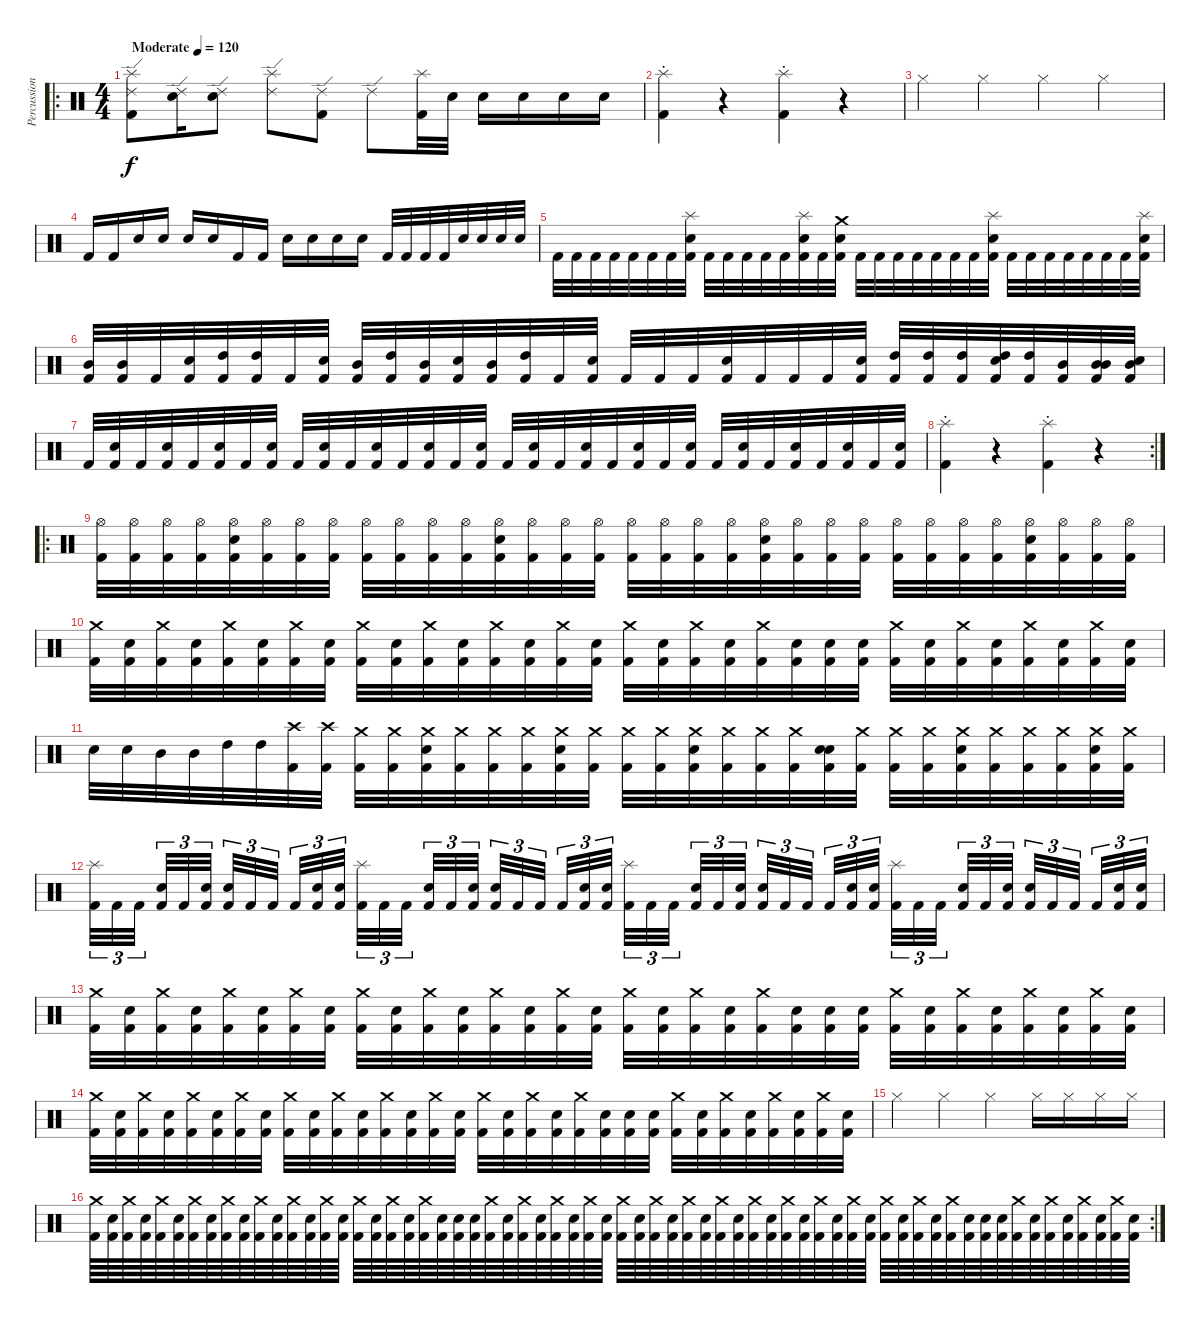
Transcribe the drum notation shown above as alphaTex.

\track ("Percussion" "Percussion") {instrument percussion}
\staff {score}
\articulation defaults
\ro
\ts (4 4)
\tempo (120 "Moderate")
\clef neutral
\ks c
("Splash (hit)" "Ride (edge) 2" "Kick (hit) 2").8{dy f} ("Snare (hit) 2" "Ride (edge) 2").16 ("Snare (hit) 2" "Ride (edge) 2").8 ("Splash (hit)" "Ride (edge) 2").8 ("Kick (hit) 2" "Ride (edge) 2").8 "Ride (edge) 2".8 ("Kick (hit) 2" "Splash (hit)").32 "Snare (hit) 2".32 "Snare (hit) 2".16 "Snare (hit) 2".16 "Snare (hit) 2".16 "Snare (hit) 2".16 |
("Splash (hit)"{st} "Kick (hit) 2"{st}).4 r.4 ("Splash (hit)"{st} "Kick (hit) 2"{st}).4 r.4 |
"Hi-Hat (closed)".4 "Hi-Hat (closed)".4 "Hi-Hat (closed)".4 "Hi-Hat (closed)".4 |
"Kick (hit) 2".16 "Kick (hit) 2".16 "Snare (hit) 2".16 "Snare (hit) 2".16 "Snare (hit) 2".16 "Snare (hit) 2".16 "Kick (hit) 2".16 "Kick (hit) 2".16 "Snare (hit) 2".16 "Snare (hit) 2".16 "Snare (hit) 2".16 "Snare (hit) 2".16 "Kick (hit) 2".32 "Kick (hit) 2".32 "Kick (hit) 2".32 "Kick (hit) 2".32 "Snare (hit) 2".32 "Snare (hit) 2".32 "Snare (hit) 2".32 "Snare (hit) 2".32 |
"Kick (hit) 2".32 "Kick (hit) 2".32 "Kick (hit) 2".32 "Kick (hit) 2".32 "Kick (hit) 2".32 "Kick (hit) 2".32 "Kick (hit) 2".32 ("Kick (hit) 2" "Snare (hit) 2" "Splash (hit)").32 "Kick (hit) 2".32 "Kick (hit) 2".32 "Kick (hit) 2".32 "Kick (hit) 2".32 "Kick (hit) 2".32 ("Kick (hit) 2" "Snare (hit) 2" "Splash (hit)").32 "Kick (hit) 2".32 ("Kick (hit) 2" "Snare (hit) 2" "Crash medium (hit)").32 "Kick (hit) 2".32 "Kick (hit) 2".32 "Kick (hit) 2".32 "Kick (hit) 2".32 "Kick (hit) 2".32 "Kick (hit) 2".32 "Kick (hit) 2".32 ("Kick (hit) 2" "Snare (hit) 2" "Splash (hit)").32 "Kick (hit) 2".32 "Kick (hit) 2".32 "Kick (hit) 2".32 "Kick (hit) 2".32 "Kick (hit) 2".32 "Kick (hit) 2".32 "Kick (hit) 2".32 ("Kick (hit) 2" "Snare (hit) 2" "Splash (hit)").32 |
("Kick (hit) 2" "Mid Tom (hit)").32 ("Kick (hit) 2" "Mid Tom (hit)").32 "Kick (hit) 2".32 ("Kick (hit) 2" "Snare (hit) 2").32 ("Kick (hit) 2" "High Tom (hit)").32 ("Kick (hit) 2" "High Tom (hit)").32 "Kick (hit) 2".32 ("Kick (hit) 2" "Snare (hit) 2").32 ("Kick (hit) 2" "Mid Tom (hit)").32 ("Kick (hit) 2" "High Tom (hit)").32 ("Kick (hit) 2" "Mid Tom (hit)").32 ("Kick (hit) 2" "Snare (hit) 2").32 ("Kick (hit) 2" "Mid Tom (hit)").32 ("Kick (hit) 2" "High Tom (hit)").32 "Kick (hit) 2".32 ("Kick (hit) 2" "Snare (hit) 2").32 "Kick (hit) 2".32 "Kick (hit) 2".32 "Kick (hit) 2".32 ("Kick (hit) 2" "Snare (hit) 2").32 "Kick (hit) 2".32 "Kick (hit) 2".32 "Kick (hit) 2".32 ("Kick (hit) 2" "Snare (hit) 2").32 ("Kick (hit) 2" "High Tom (hit)").32 ("Kick (hit) 2" "High Tom (hit)").32 ("Kick (hit) 2" "High Tom (hit)").32 ("Kick (hit) 2" "Snare (hit) 2" "High Tom (hit)").32 ("Kick (hit) 2" "High Tom (hit)").32 ("Kick (hit) 2" "Mid Tom (hit)").32 ("Kick (hit) 2" "Mid Tom (hit)" "Mid Tom (hit)").32 ("Kick (hit) 2" "Snare (hit) 2" "Mid Tom (hit)").32 |
"Kick (hit) 2".32 ("Kick (hit) 2" "Snare (hit) 2").32 "Kick (hit) 2".32 ("Kick (hit) 2" "Snare (hit) 2").32 "Kick (hit) 2".32 ("Kick (hit) 2" "Snare (hit) 2").32 "Kick (hit) 2".32 ("Kick (hit) 2" "Snare (hit) 2").32 "Kick (hit) 2".32 ("Kick (hit) 2" "Snare (hit) 2").32 "Kick (hit) 2".32 ("Kick (hit) 2" "Snare (hit) 2").32 "Kick (hit) 2".32 ("Kick (hit) 2" "Snare (hit) 2").32 "Kick (hit) 2".32 ("Kick (hit) 2" "Snare (hit) 2").32 "Kick (hit) 2".32 ("Kick (hit) 2" "Snare (hit) 2").32 "Kick (hit) 2".32 ("Kick (hit) 2" "Snare (hit) 2").32 "Kick (hit) 2".32 ("Kick (hit) 2" "Snare (hit) 2").32 "Kick (hit) 2".32 ("Kick (hit) 2" "Snare (hit) 2").32 "Kick (hit) 2".32 ("Kick (hit) 2" "Snare (hit) 2").32 "Kick (hit) 2".32 ("Kick (hit) 2" "Snare (hit) 2").32 "Kick (hit) 2".32 ("Kick (hit) 2" "Snare (hit) 2").32 "Kick (hit) 2".32 ("Kick (hit) 2" "Snare (hit) 2").32 |
\rc 2
("Splash (hit)"{st} "Kick (hit) 2"{st}).4 r.4 ("Splash (hit)"{st} "Kick (hit) 2"{st}).4 r.4 |
\ro
("Kick (hit) 2" "Hi-Hat (open)").32 ("Kick (hit) 2" "Hi-Hat (open)").32 ("Kick (hit) 2" "Hi-Hat (open)").32 ("Kick (hit) 2" "Hi-Hat (open)").32 ("Kick (hit) 2" "Snare (hit) 2" "Hi-Hat (open)").32 ("Kick (hit) 2" "Hi-Hat (open)").32 ("Kick (hit) 2" "Hi-Hat (open)").32 ("Kick (hit) 2" "Hi-Hat (open)").32 ("Kick (hit) 2" "Hi-Hat (open)").32 ("Kick (hit) 2" "Hi-Hat (open)").32 ("Kick (hit) 2" "Hi-Hat (open)").32 ("Kick (hit) 2" "Hi-Hat (open)").32 ("Kick (hit) 2" "Snare (hit) 2" "Hi-Hat (open)").32 ("Kick (hit) 2" "Hi-Hat (open)").32 ("Kick (hit) 2" "Hi-Hat (open)").32 ("Kick (hit) 2" "Hi-Hat (open)").32 ("Kick (hit) 2" "Hi-Hat (open)").32 ("Kick (hit) 2" "Hi-Hat (open)").32 ("Kick (hit) 2" "Hi-Hat (open)").32 ("Kick (hit) 2" "Hi-Hat (open)").32 ("Kick (hit) 2" "Snare (hit) 2" "Hi-Hat (open)").32 ("Kick (hit) 2" "Hi-Hat (open)").32 ("Kick (hit) 2" "Hi-Hat (open)").32 ("Kick (hit) 2" "Hi-Hat (open)").32 ("Kick (hit) 2" "Hi-Hat (open)").32 ("Kick (hit) 2" "Hi-Hat (open)").32 ("Kick (hit) 2" "Hi-Hat (open)").32 ("Kick (hit) 2" "Hi-Hat (open)").32 ("Kick (hit) 2" "Snare (hit) 2" "Hi-Hat (open)").32 ("Kick (hit) 2" "Hi-Hat (open)").32 ("Kick (hit) 2" "Hi-Hat (open)").32 ("Kick (hit) 2" "Hi-Hat (open)").32 |
("Kick (hit) 2" "Crash medium (hit)").32 ("Kick (hit) 2" "Snare (hit) 2").32 ("Kick (hit) 2" "Crash medium (hit)").32 ("Kick (hit) 2" "Snare (hit) 2").32 ("Kick (hit) 2" "Crash medium (hit)").32 ("Kick (hit) 2" "Snare (hit) 2").32 ("Kick (hit) 2" "Crash medium (hit)").32 ("Kick (hit) 2" "Snare (hit) 2").32 ("Kick (hit) 2" "Crash medium (hit)").32 ("Kick (hit) 2" "Snare (hit) 2").32 ("Kick (hit) 2" "Crash medium (hit)").32 ("Kick (hit) 2" "Snare (hit) 2").32 ("Kick (hit) 2" "Crash medium (hit)").32 ("Kick (hit) 2" "Snare (hit) 2").32 ("Kick (hit) 2" "Crash medium (hit)").32 ("Kick (hit) 2" "Snare (hit) 2").32 ("Kick (hit) 2" "Crash medium (hit)").32 ("Kick (hit) 2" "Snare (hit) 2").32 ("Kick (hit) 2" "Crash medium (hit)").32 ("Kick (hit) 2" "Snare (hit) 2").32 ("Kick (hit) 2" "Crash medium (hit)").32 ("Kick (hit) 2" "Snare (hit) 2").32 ("Kick (hit) 2" "Snare (hit) 2").32 ("Kick (hit) 2" "Snare (hit) 2").32 ("Kick (hit) 2" "Crash medium (hit)").32 ("Kick (hit) 2" "Snare (hit) 2").32 ("Kick (hit) 2" "Crash medium (hit)").32 ("Kick (hit) 2" "Snare (hit) 2").32 ("Kick (hit) 2" "Crash medium (hit)").32 ("Kick (hit) 2" "Snare (hit) 2").32 ("Kick (hit) 2" "Crash medium (hit)").32 ("Kick (hit) 2" "Snare (hit) 2").32 |
"Snare (hit) 2".32 "Snare (hit) 2".32 "Mid Tom (hit)".32 "Mid Tom (hit)".32 "High Tom (hit)".32 "High Tom (hit)".32 ("Kick (hit) 2" "Crash high (hit)").32 ("Kick (hit) 2" "Crash high (hit)").32 ("Kick (hit) 2" "Crash medium (hit)").32 ("Kick (hit) 2" "Crash medium (hit)").32 ("Kick (hit) 2" "Snare (hit) 2" "Crash medium (hit)").32 ("Kick (hit) 2" "Crash medium (hit)").32 ("Kick (hit) 2" "Crash medium (hit)").32 ("Kick (hit) 2" "Crash medium (hit)").32 ("Kick (hit) 2" "Snare (hit) 2" "Crash medium (hit)").32 ("Kick (hit) 2" "Crash medium (hit)").32 ("Kick (hit) 2" "Crash medium (hit)").32 ("Kick (hit) 2" "Crash medium (hit)").32 ("Kick (hit) 2" "Snare (hit) 2" "Crash medium (hit)").32 ("Kick (hit) 2" "Crash medium (hit)").32 ("Kick (hit) 2" "Crash medium (hit)").32 ("Kick (hit) 2" "Crash medium (hit)").32 ("Kick (hit) 2" "Snare (hit) 2" "Snare (hit) 2").32 ("Kick (hit) 2" "Crash medium (hit)").32 ("Kick (hit) 2" "Crash medium (hit)").32 ("Kick (hit) 2" "Crash medium (hit)").32 ("Kick (hit) 2" "Snare (hit) 2" "Crash medium (hit)").32 ("Kick (hit) 2" "Crash medium (hit)").32 ("Kick (hit) 2" "Crash medium (hit)").32 ("Kick (hit) 2" "Crash medium (hit)").32 ("Kick (hit) 2" "Snare (hit) 2" "Crash medium (hit)").32 ("Kick (hit) 2" "Crash medium (hit)").32 |
("Kick (hit) 2" "Splash (hit)").32{tu (3 2)} "Kick (hit) 2".32{tu (3 2)} "Kick (hit) 2".32{tu (3 2) beam splitsecondary} ("Kick (hit) 2" "Snare (hit) 2").32{tu (3 2)} "Kick (hit) 2".32{tu (3 2)} ("Kick (hit) 2" "Snare (hit) 2").32{tu (3 2) beam splitsecondary} ("Kick (hit) 2" "Snare (hit) 2").32{tu (3 2)} "Kick (hit) 2".32{tu (3 2)} "Kick (hit) 2".32{tu (3 2) beam splitsecondary} "Kick (hit) 2".32{tu (3 2)} ("Kick (hit) 2" "Snare (hit) 2").32{tu (3 2)} ("Kick (hit) 2" "Snare (hit) 2").32{tu (3 2)} ("Kick (hit) 2" "Splash (hit)").32{tu (3 2)} "Kick (hit) 2".32{tu (3 2)} "Kick (hit) 2".32{tu (3 2) beam splitsecondary} ("Kick (hit) 2" "Snare (hit) 2").32{tu (3 2)} "Kick (hit) 2".32{tu (3 2)} ("Kick (hit) 2" "Snare (hit) 2").32{tu (3 2) beam splitsecondary} ("Kick (hit) 2" "Snare (hit) 2").32{tu (3 2)} "Kick (hit) 2".32{tu (3 2)} "Kick (hit) 2".32{tu (3 2) beam splitsecondary} "Kick (hit) 2".32{tu (3 2)} ("Kick (hit) 2" "Snare (hit) 2").32{tu (3 2)} ("Kick (hit) 2" "Snare (hit) 2").32{tu (3 2)} ("Kick (hit) 2" "Splash (hit)").32{tu (3 2)} "Kick (hit) 2".32{tu (3 2)} "Kick (hit) 2".32{tu (3 2) beam splitsecondary} ("Kick (hit) 2" "Snare (hit) 2").32{tu (3 2)} "Kick (hit) 2".32{tu (3 2)} ("Kick (hit) 2" "Snare (hit) 2").32{tu (3 2) beam splitsecondary} ("Kick (hit) 2" "Snare (hit) 2").32{tu (3 2)} "Kick (hit) 2".32{tu (3 2)} "Kick (hit) 2".32{tu (3 2) beam splitsecondary} "Kick (hit) 2".32{tu (3 2)} ("Kick (hit) 2" "Snare (hit) 2").32{tu (3 2)} ("Kick (hit) 2" "Snare (hit) 2").32{tu (3 2)} ("Kick (hit) 2" "Splash (hit)").32{tu (3 2)} "Kick (hit) 2".32{tu (3 2)} "Kick (hit) 2".32{tu (3 2) beam splitsecondary} ("Kick (hit) 2" "Snare (hit) 2").32{tu (3 2)} "Kick (hit) 2".32{tu (3 2)} ("Kick (hit) 2" "Snare (hit) 2").32{tu (3 2) beam splitsecondary} ("Kick (hit) 2" "Snare (hit) 2").32{tu (3 2)} "Kick (hit) 2".32{tu (3 2)} "Kick (hit) 2".32{tu (3 2) beam splitsecondary} "Kick (hit) 2".32{tu (3 2)} ("Kick (hit) 2" "Snare (hit) 2").32{tu (3 2)} ("Kick (hit) 2" "Snare (hit) 2").32{tu (3 2)} |
("Kick (hit) 2" "Crash medium (hit)").32 ("Kick (hit) 2" "Snare (hit) 2").32 ("Kick (hit) 2" "Crash medium (hit)").32 ("Kick (hit) 2" "Snare (hit) 2").32 ("Kick (hit) 2" "Crash medium (hit)").32 ("Kick (hit) 2" "Snare (hit) 2").32 ("Kick (hit) 2" "Crash medium (hit)").32 ("Kick (hit) 2" "Snare (hit) 2").32 ("Kick (hit) 2" "Crash medium (hit)").32 ("Kick (hit) 2" "Snare (hit) 2").32 ("Kick (hit) 2" "Crash medium (hit)").32 ("Kick (hit) 2" "Snare (hit) 2").32 ("Kick (hit) 2" "Crash medium (hit)").32 ("Kick (hit) 2" "Snare (hit) 2").32 ("Kick (hit) 2" "Crash medium (hit)").32 ("Kick (hit) 2" "Snare (hit) 2").32 ("Kick (hit) 2" "Crash medium (hit)").32 ("Kick (hit) 2" "Snare (hit) 2").32 ("Kick (hit) 2" "Crash medium (hit)").32 ("Kick (hit) 2" "Snare (hit) 2").32 ("Kick (hit) 2" "Crash medium (hit)").32 ("Kick (hit) 2" "Snare (hit) 2").32 ("Kick (hit) 2" "Snare (hit) 2").32 ("Kick (hit) 2" "Snare (hit) 2").32 ("Kick (hit) 2" "Crash medium (hit)").32 ("Kick (hit) 2" "Snare (hit) 2").32 ("Kick (hit) 2" "Crash medium (hit)").32 ("Kick (hit) 2" "Snare (hit) 2").32 ("Kick (hit) 2" "Crash medium (hit)").32 ("Kick (hit) 2" "Snare (hit) 2").32 ("Kick (hit) 2" "Crash medium (hit)").32 ("Kick (hit) 2" "Snare (hit) 2").32 |
("Kick (hit) 2" "Crash medium (hit)").32 ("Kick (hit) 2" "Snare (hit) 2").32 ("Kick (hit) 2" "Crash medium (hit)").32 ("Kick (hit) 2" "Snare (hit) 2").32 ("Kick (hit) 2" "Crash medium (hit)").32 ("Kick (hit) 2" "Snare (hit) 2").32 ("Kick (hit) 2" "Crash medium (hit)").32 ("Kick (hit) 2" "Snare (hit) 2").32 ("Kick (hit) 2" "Crash medium (hit)").32 ("Kick (hit) 2" "Snare (hit) 2").32 ("Kick (hit) 2" "Crash medium (hit)").32 ("Kick (hit) 2" "Snare (hit) 2").32 ("Kick (hit) 2" "Crash medium (hit)").32 ("Kick (hit) 2" "Snare (hit) 2").32 ("Kick (hit) 2" "Crash medium (hit)").32 ("Kick (hit) 2" "Snare (hit) 2").32 ("Kick (hit) 2" "Crash medium (hit)").32 ("Kick (hit) 2" "Snare (hit) 2").32 ("Kick (hit) 2" "Crash medium (hit)").32 ("Kick (hit) 2" "Snare (hit) 2").32 ("Kick (hit) 2" "Crash medium (hit)").32 ("Kick (hit) 2" "Snare (hit) 2").32 ("Kick (hit) 2" "Snare (hit) 2").32 ("Kick (hit) 2" "Snare (hit) 2").32 ("Kick (hit) 2" "Crash medium (hit)").32 ("Kick (hit) 2" "Snare (hit) 2").32 ("Kick (hit) 2" "Crash medium (hit)").32 ("Kick (hit) 2" "Snare (hit) 2").32 ("Kick (hit) 2" "Crash medium (hit)").32 ("Kick (hit) 2" "Snare (hit) 2").32 ("Kick (hit) 2" "Crash medium (hit)").32 ("Kick (hit) 2" "Snare (hit) 2").32 |
"Hi-Hat (closed)".4 "Hi-Hat (closed)".4 "Hi-Hat (closed)".4 "Hi-Hat (closed)".16 "Hi-Hat (closed)".16 "Hi-Hat (closed)".16 "Hi-Hat (closed)".16 |
\rc 2
("Kick (hit) 2" "Crash medium (hit)").64 ("Kick (hit) 2" "Snare (hit) 2").64 ("Kick (hit) 2" "Crash medium (hit)").64 ("Kick (hit) 2" "Snare (hit) 2").64 ("Kick (hit) 2" "Crash medium (hit)").64 ("Kick (hit) 2" "Snare (hit) 2").64 ("Kick (hit) 2" "Crash medium (hit)").64 ("Kick (hit) 2" "Snare (hit) 2").64 ("Kick (hit) 2" "Crash medium (hit)").64 ("Kick (hit) 2" "Snare (hit) 2").64 ("Kick (hit) 2" "Crash medium (hit)").64 ("Kick (hit) 2" "Snare (hit) 2").64 ("Kick (hit) 2" "Crash medium (hit)").64 ("Kick (hit) 2" "Snare (hit) 2").64 ("Kick (hit) 2" "Crash medium (hit)").64 ("Kick (hit) 2" "Snare (hit) 2").64 ("Kick (hit) 2" "Crash medium (hit)").64 ("Kick (hit) 2" "Snare (hit) 2").64 ("Kick (hit) 2" "Crash medium (hit)").64 ("Kick (hit) 2" "Snare (hit) 2").64 ("Kick (hit) 2" "Crash medium (hit)").64 ("Kick (hit) 2" "Snare (hit) 2").64 ("Kick (hit) 2" "Snare (hit) 2").64 ("Kick (hit) 2" "Snare (hit) 2").64 ("Kick (hit) 2" "Crash medium (hit)").64 ("Kick (hit) 2" "Snare (hit) 2").64 ("Kick (hit) 2" "Crash medium (hit)").64 ("Kick (hit) 2" "Snare (hit) 2").64 ("Kick (hit) 2" "Crash medium (hit)").64 ("Kick (hit) 2" "Snare (hit) 2").64 ("Kick (hit) 2" "Crash medium (hit)").64 ("Kick (hit) 2" "Snare (hit) 2").64 ("Kick (hit) 2" "Crash medium (hit)").64 ("Kick (hit) 2" "Snare (hit) 2").64 ("Kick (hit) 2" "Crash medium (hit)").64 ("Kick (hit) 2" "Snare (hit) 2").64 ("Kick (hit) 2" "Crash medium (hit)").64 ("Kick (hit) 2" "Snare (hit) 2").64 ("Kick (hit) 2" "Crash medium (hit)").64 ("Kick (hit) 2" "Snare (hit) 2").64 ("Kick (hit) 2" "Crash medium (hit)").64 ("Kick (hit) 2" "Snare (hit) 2").64 ("Kick (hit) 2" "Crash medium (hit)").64 ("Kick (hit) 2" "Snare (hit) 2").64 ("Kick (hit) 2" "Crash medium (hit)").64 ("Kick (hit) 2" "Snare (hit) 2").64 ("Kick (hit) 2" "Crash medium (hit)").64 ("Kick (hit) 2" "Snare (hit) 2").64 ("Kick (hit) 2" "Crash medium (hit)").64 ("Kick (hit) 2" "Snare (hit) 2").64 ("Kick (hit) 2" "Crash medium (hit)").64 ("Kick (hit) 2" "Snare (hit) 2").64 ("Kick (hit) 2" "Crash medium (hit)").64 ("Kick (hit) 2" "Snare (hit) 2").64 ("Kick (hit) 2" "Snare (hit) 2").64 ("Kick (hit) 2" "Snare (hit) 2").64 ("Kick (hit) 2" "Crash medium (hit)").64 ("Kick (hit) 2" "Snare (hit) 2").64 ("Kick (hit) 2" "Crash medium (hit)").64 ("Kick (hit) 2" "Snare (hit) 2").64 ("Kick (hit) 2" "Crash medium (hit)").64 ("Kick (hit) 2" "Snare (hit) 2").64 ("Kick (hit) 2" "Crash medium (hit)").64 ("Kick (hit) 2" "Snare (hit) 2").64
